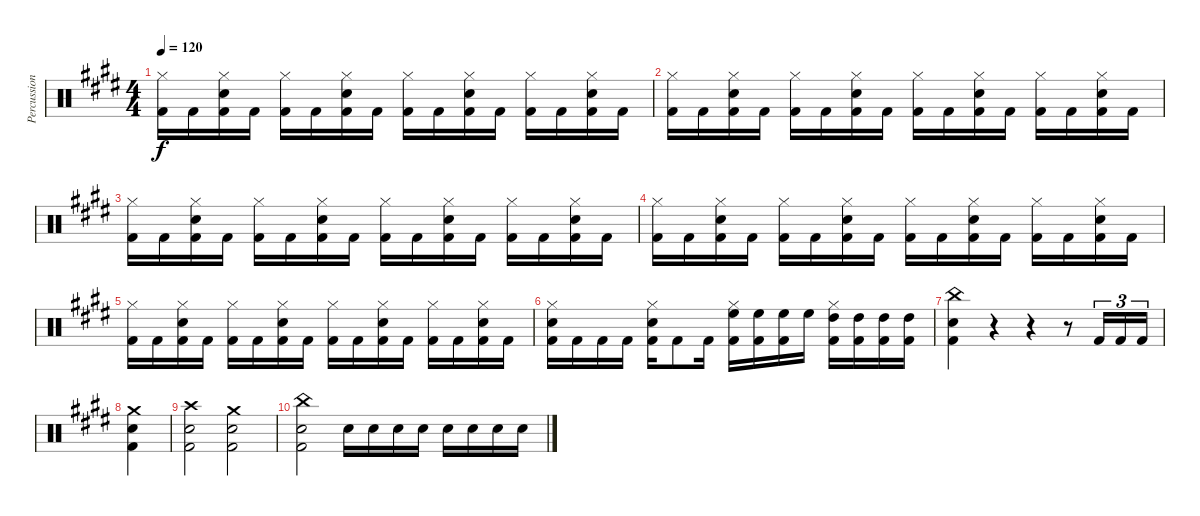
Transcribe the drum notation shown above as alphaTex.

\track ("Percussions" "Percussion") {instrument percussion}
\staff {score}
\articulation defaults
\ts (4 4)
\tempo 120
\clef neutral
\ks c#minor
("Hi-Hat (closed)" "Kick (hit) 2").16{dy f} "Kick (hit) 2".16 ("Hi-Hat (closed)" "Snare (hit) 2" "Kick (hit) 2").16 "Kick (hit) 2".16 ("Hi-Hat (closed)" "Kick (hit) 2").16 "Kick (hit) 2".16 ("Hi-Hat (closed)" "Snare (hit) 2" "Kick (hit) 2").16 "Kick (hit) 2".16 ("Hi-Hat (closed)" "Kick (hit) 2").16 "Kick (hit) 2".16 ("Hi-Hat (closed)" "Snare (hit) 2" "Kick (hit) 2").16 "Kick (hit) 2".16 ("Hi-Hat (closed)" "Kick (hit) 2").16 "Kick (hit) 2".16 ("Hi-Hat (closed)" "Snare (hit) 2" "Kick (hit) 2").16 "Kick (hit) 2".16 |
("Hi-Hat (closed)" "Kick (hit) 2").16 "Kick (hit) 2".16 ("Hi-Hat (closed)" "Snare (hit) 2" "Kick (hit) 2").16 "Kick (hit) 2".16 ("Hi-Hat (closed)" "Kick (hit) 2").16 "Kick (hit) 2".16 ("Hi-Hat (closed)" "Snare (hit) 2" "Kick (hit) 2").16 "Kick (hit) 2".16 ("Hi-Hat (closed)" "Kick (hit) 2").16 "Kick (hit) 2".16 ("Hi-Hat (closed)" "Snare (hit) 2" "Kick (hit) 2").16 "Kick (hit) 2".16 ("Hi-Hat (closed)" "Kick (hit) 2").16 "Kick (hit) 2".16 ("Hi-Hat (closed)" "Snare (hit) 2" "Kick (hit) 2").16 "Kick (hit) 2".16 |
("Hi-Hat (closed)" "Kick (hit) 2").16 "Kick (hit) 2".16 ("Hi-Hat (closed)" "Snare (hit) 2" "Kick (hit) 2").16 "Kick (hit) 2".16 ("Hi-Hat (closed)" "Kick (hit) 2").16 "Kick (hit) 2".16 ("Hi-Hat (closed)" "Snare (hit) 2" "Kick (hit) 2").16 "Kick (hit) 2".16 ("Hi-Hat (closed)" "Kick (hit) 2").16 "Kick (hit) 2".16 ("Hi-Hat (closed)" "Snare (hit) 2" "Kick (hit) 2").16 "Kick (hit) 2".16 ("Hi-Hat (closed)" "Kick (hit) 2").16 "Kick (hit) 2".16 ("Hi-Hat (closed)" "Snare (hit) 2" "Kick (hit) 2").16 "Kick (hit) 2".16 |
("Hi-Hat (closed)" "Kick (hit) 2").16 "Kick (hit) 2".16 ("Hi-Hat (closed)" "Snare (hit) 2" "Kick (hit) 2").16 "Kick (hit) 2".16 ("Hi-Hat (closed)" "Kick (hit) 2").16 "Kick (hit) 2".16 ("Hi-Hat (closed)" "Snare (hit) 2" "Kick (hit) 2").16 "Kick (hit) 2".16 ("Hi-Hat (closed)" "Kick (hit) 2").16 "Kick (hit) 2".16 ("Hi-Hat (closed)" "Snare (hit) 2" "Kick (hit) 2").16 "Kick (hit) 2".16 ("Hi-Hat (closed)" "Kick (hit) 2").16 "Kick (hit) 2".16 ("Hi-Hat (closed)" "Snare (hit) 2" "Kick (hit) 2").16 "Kick (hit) 2".16 |
("Hi-Hat (closed)" "Kick (hit) 2").16 "Kick (hit) 2".16 ("Hi-Hat (closed)" "Snare (hit) 2" "Kick (hit) 2").16 "Kick (hit) 2".16 ("Hi-Hat (closed)" "Kick (hit) 2").16 "Kick (hit) 2".16 ("Hi-Hat (closed)" "Snare (hit) 2" "Kick (hit) 2").16 "Kick (hit) 2".16 ("Hi-Hat (closed)" "Kick (hit) 2").16 "Kick (hit) 2".16 ("Hi-Hat (closed)" "Snare (hit) 2" "Kick (hit) 2").16 "Kick (hit) 2".16 ("Hi-Hat (closed)" "Kick (hit) 2").16 "Kick (hit) 2".16 ("Hi-Hat (closed)" "Snare (hit) 2" "Kick (hit) 2").16 "Kick (hit) 2".16 |
("Hi-Hat (closed)" "Snare (hit) 2" "Kick (hit) 2").16 "Kick (hit) 2".16 "Kick (hit) 2".16 "Kick (hit) 2".16 ("Hi-Hat (closed)" "Snare (hit) 2" "Kick (hit) 2").16 "Kick (hit) 2".8 "Kick (hit) 2".16 ("Hi-Hat (closed)" "High Floor Tom (hit)" "Kick (hit) 2").16 ("High Floor Tom (hit)" "Kick (hit) 2").16 ("High Floor Tom (hit)" "Kick (hit) 2").16 "High Floor Tom (hit)".16 ("Hi-Hat (closed)" "High Tom (hit)" "Kick (hit) 2").16 ("High Tom (hit)" "Kick (hit) 2").16 ("High Tom (hit)" "Kick (hit) 2").16 ("High Tom (hit)" "Kick (hit) 2").16 |
("China (hit)" "Snare (hit) 2" "Kick (hit) 2").4 r.4 r.4 r.8 "Kick (hit) 2".16{tu (3 2)} "Kick (hit) 2".16{tu (3 2)} "Kick (hit) 2".16{tu (3 2)} |
("Crash medium (hit)" "Snare (hit) 2" "Kick (hit) 2").4 |
("Crash high (hit)" "Snare (hit) 2" "Kick (hit) 2").2 ("Crash medium (hit)" "Snare (hit) 2" "Kick (hit) 2").2 |
("China (hit)" "Snare (hit) 2" "Kick (hit) 2").2 "Snare (hit) 2".16{volume 4} "Snare (hit) 2".16{volume 9} "Snare (hit) 2".16 "Snare (hit) 2".16 "Snare (hit) 2".16 "Snare (hit) 2".16 "Snare (hit) 2".16 "Snare (hit) 2".16
